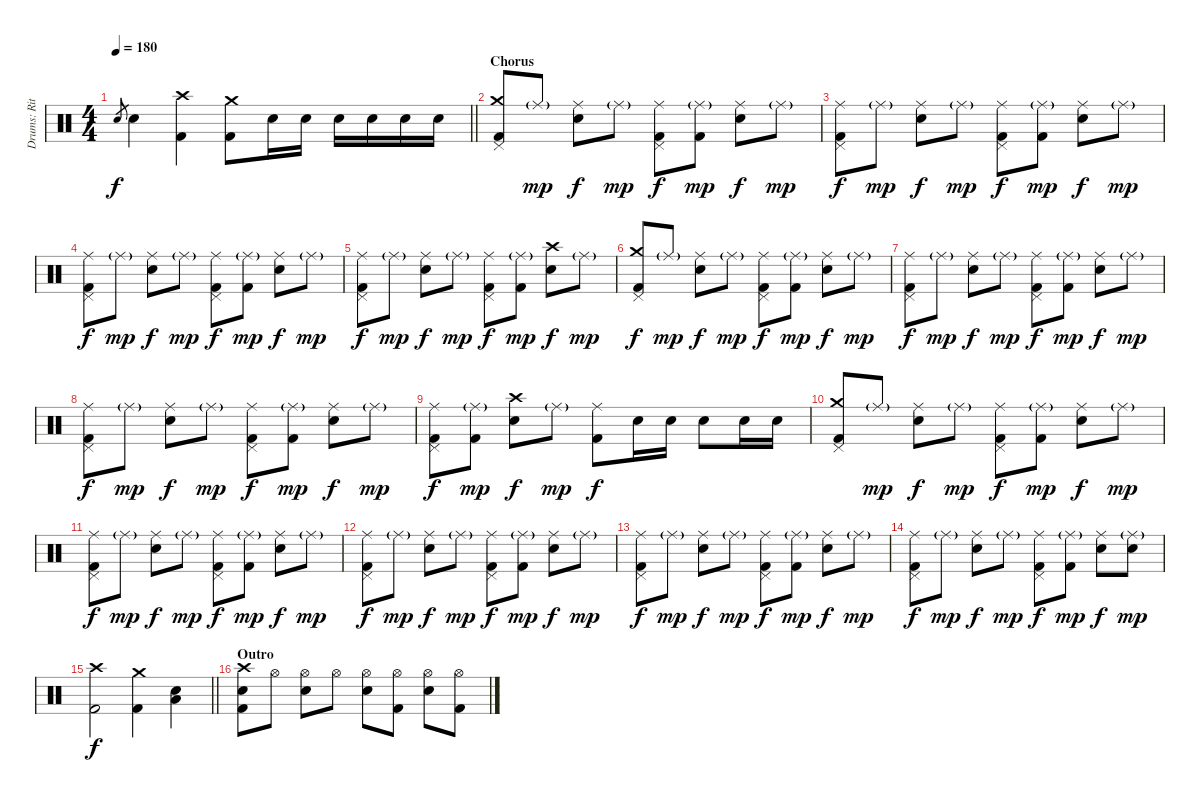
\track ("Drums: Ritsu Tainaka" "Drums: Rit") {instrument percussion}
\staff {score}
\articulation defaults
\ts (4 4)
\tempo 180
\clef neutral
\barLineRight lightlight
\ks c "Electric Snare (hit)".8{gr dy f} "Electric Snare (hit)".4
("Crash high (hit)" "Kick (hit) 2").4 ("Crash medium (hit)" "Kick (hit) 2").8 "Electric Snare (hit)".16 "Electric Snare (hit)".16 "Electric Snare (hit)".16 "Electric Snare (hit)".16 "Electric Snare (hit)".16 "Electric Snare (hit)".16 |
\section ("" "Chorus")
("Crash medium (hit)" "Pedal Hi-Hat (hit)" "Kick (hit) 2").8 "Ride (middle)"{g}.8{dy mp} ("Ride (middle)" "Electric Snare (hit)").8{dy f} "Ride (middle)"{g}.8{dy mp} ("Ride (middle)" "Pedal Hi-Hat (hit)" "Kick (hit) 2").8{dy f} ("Ride (middle)"{g} "Kick (hit) 2").8{dy mp} ("Ride (middle)" "Electric Snare (hit)").8{dy f} "Ride (middle)"{g}.8{dy mp} |
("Ride (middle)" "Pedal Hi-Hat (hit)" "Kick (hit) 2").8{dy f} "Ride (middle)"{g}.8{dy mp} ("Ride (middle)" "Electric Snare (hit)").8{dy f} "Ride (middle)"{g}.8{dy mp} ("Ride (middle)" "Pedal Hi-Hat (hit)" "Kick (hit) 2").8{dy f} ("Ride (middle)"{g} "Kick (hit) 2").8{dy mp} ("Ride (middle)" "Electric Snare (hit)").8{dy f} "Ride (middle)"{g}.8{dy mp} |
("Ride (middle)" "Pedal Hi-Hat (hit)" "Kick (hit) 2").8{dy f} "Ride (middle)"{g}.8{dy mp} ("Ride (middle)" "Electric Snare (hit)").8{dy f} "Ride (middle)"{g}.8{dy mp} ("Ride (middle)" "Pedal Hi-Hat (hit)" "Kick (hit) 2").8{dy f} ("Ride (middle)"{g} "Kick (hit) 2").8{dy mp} ("Ride (middle)" "Electric Snare (hit)").8{dy f} "Ride (middle)"{g}.8{dy mp} |
("Ride (middle)" "Pedal Hi-Hat (hit)" "Kick (hit) 2").8{dy f} "Ride (middle)"{g}.8{dy mp} ("Ride (middle)" "Electric Snare (hit)").8{dy f} "Ride (middle)"{g}.8{dy mp} ("Ride (middle)" "Pedal Hi-Hat (hit)" "Kick (hit) 2").8{dy f} ("Ride (middle)"{g} "Kick (hit) 2").8{dy mp} ("Crash high (hit)" "Electric Snare (hit)").8{dy f} "Ride (middle)"{g}.8{dy mp} |
("Crash medium (hit)" "Pedal Hi-Hat (hit)" "Kick (hit) 2").8{dy f} "Ride (middle)"{g}.8{dy mp} ("Ride (middle)" "Electric Snare (hit)").8{dy f} "Ride (middle)"{g}.8{dy mp} ("Ride (middle)" "Pedal Hi-Hat (hit)" "Kick (hit) 2").8{dy f} ("Ride (middle)"{g} "Kick (hit) 2").8{dy mp} ("Ride (middle)" "Electric Snare (hit)").8{dy f} "Ride (middle)"{g}.8{dy mp} |
("Ride (middle)" "Pedal Hi-Hat (hit)" "Kick (hit) 2").8{dy f} "Ride (middle)"{g}.8{dy mp} ("Ride (middle)" "Electric Snare (hit)").8{dy f} "Ride (middle)"{g}.8{dy mp} ("Ride (middle)" "Pedal Hi-Hat (hit)" "Kick (hit) 2").8{dy f} ("Ride (middle)"{g} "Kick (hit) 2").8{dy mp} ("Ride (middle)" "Electric Snare (hit)").8{dy f} "Ride (middle)"{g}.8{dy mp} |
("Ride (middle)" "Pedal Hi-Hat (hit)" "Kick (hit) 2").8{dy f} "Ride (middle)"{g}.8{dy mp} ("Ride (middle)" "Electric Snare (hit)").8{dy f} "Ride (middle)"{g}.8{dy mp} ("Ride (middle)" "Pedal Hi-Hat (hit)" "Kick (hit) 2").8{dy f} ("Ride (middle)"{g} "Kick (hit) 2").8{dy mp} ("Ride (middle)" "Electric Snare (hit)").8{dy f} "Ride (middle)"{g}.8{dy mp} |
("Ride (middle)" "Pedal Hi-Hat (hit)" "Kick (hit) 2").8{dy f} ("Ride (middle)"{g} "Kick (hit) 2").8{dy mp} ("Crash high (hit)" "Electric Snare (hit)").8{dy f} "Ride (middle)"{g}.8{dy mp} ("Ride (middle)" "Kick (hit) 2").8{dy f} "Electric Snare (hit)".16 "Electric Snare (hit)".16 "Electric Snare (hit)".8 "Electric Snare (hit)".16 "Electric Snare (hit)".16 |
("Crash medium (hit)" "Pedal Hi-Hat (hit)" "Kick (hit) 2").8 "Ride (middle)"{g}.8{dy mp} ("Ride (middle)" "Electric Snare (hit)").8{dy f} "Ride (middle)"{g}.8{dy mp} ("Ride (middle)" "Pedal Hi-Hat (hit)" "Kick (hit) 2").8{dy f} ("Ride (middle)"{g} "Kick (hit) 2").8{dy mp} ("Ride (middle)" "Electric Snare (hit)").8{dy f} "Ride (middle)"{g}.8{dy mp} |
("Ride (middle)" "Pedal Hi-Hat (hit)" "Kick (hit) 2").8{dy f} "Ride (middle)"{g}.8{dy mp} ("Ride (middle)" "Electric Snare (hit)").8{dy f} "Ride (middle)"{g}.8{dy mp} ("Ride (middle)" "Pedal Hi-Hat (hit)" "Kick (hit) 2").8{dy f} ("Ride (middle)"{g} "Kick (hit) 2").8{dy mp} ("Ride (middle)" "Electric Snare (hit)").8{dy f} "Ride (middle)"{g}.8{dy mp} |
("Ride (middle)" "Pedal Hi-Hat (hit)" "Kick (hit) 2").8{dy f} "Ride (middle)"{g}.8{dy mp} ("Ride (middle)" "Electric Snare (hit)").8{dy f} "Ride (middle)"{g}.8{dy mp} ("Ride (middle)" "Pedal Hi-Hat (hit)" "Kick (hit) 2").8{dy f} ("Ride (middle)"{g} "Kick (hit) 2").8{dy mp} ("Ride (middle)" "Electric Snare (hit)").8{dy f} "Ride (middle)"{g}.8{dy mp} |
("Ride (middle)" "Pedal Hi-Hat (hit)" "Kick (hit) 2").8{dy f} "Ride (middle)"{g}.8{dy mp} ("Ride (middle)" "Electric Snare (hit)").8{dy f} "Ride (middle)"{g}.8{dy mp} ("Ride (middle)" "Pedal Hi-Hat (hit)" "Kick (hit) 2").8{dy f} ("Ride (middle)"{g} "Kick (hit) 2").8{dy mp} ("Ride (middle)" "Electric Snare (hit)").8{dy f} "Ride (middle)"{g}.8{dy mp} |
("Ride (middle)" "Pedal Hi-Hat (hit)" "Kick (hit) 2").8{dy f} "Ride (middle)"{g}.8{dy mp} ("Ride (middle)" "Electric Snare (hit)").8{dy f} "Ride (middle)"{g}.8{dy mp} ("Ride (middle)" "Pedal Hi-Hat (hit)" "Kick (hit) 2").8{dy f} ("Ride (middle)"{g} "Kick (hit) 2").8{dy mp} ("Ride (middle)" "Electric Snare (hit)").8{dy f} ("Ride (middle)"{g} "Electric Snare (hit)").8{dy mp} |
\barLineRight lightlight
("Crash high (hit)" "Kick (hit) 2").2{dy f} ("Crash medium (hit)" "Kick (hit) 2").4 ("Electric Snare (hit)" "Low Floor Tom (hit)").4 |
\section ("" "Outro")
("Crash high (hit)" "Electric Snare (hit)" "Kick (hit) 2").8 "Hi-Hat (open)".8 ("Hi-Hat (open)" "Electric Snare (hit)").8 "Hi-Hat (open)".8 ("Hi-Hat (open)" "Electric Snare (hit)").8 ("Hi-Hat (open)" "Kick (hit) 2").8 ("Hi-Hat (open)" "Electric Snare (hit)").8 ("Hi-Hat (open)" "Kick (hit) 2").8
